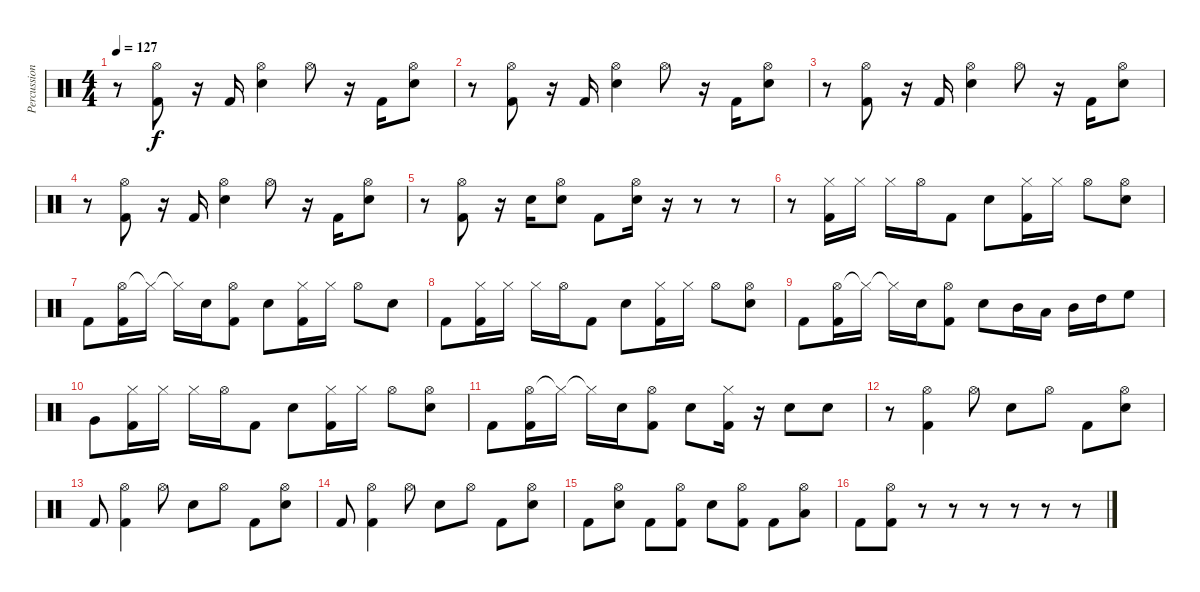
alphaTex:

\track ("Percussion" "Percussion") {instrument percussion}
\staff {score}
\articulation defaults
\ts (4 4)
\tempo 127
\clef neutral
\ks c
r.8{dy f} ("Hi-Hat (open)" "Kick (hit) 2").8 r.16 "Kick (hit) 2".16 ("Hi-Hat (open)" "Electric Snare (hit)").4 "Hi-Hat (open)".8 r.16 "Kick (hit) 2".16 ("Hi-Hat (open)" "Electric Snare (hit)").8 |
r.8 ("Hi-Hat (open)" "Kick (hit) 2").8 r.16 "Kick (hit) 2".16 ("Hi-Hat (open)" "Electric Snare (hit)").4 "Hi-Hat (open)".8 r.16 "Kick (hit) 2".16 ("Hi-Hat (open)" "Electric Snare (hit)").8 |
r.8 ("Hi-Hat (open)" "Kick (hit) 2").8 r.16 "Kick (hit) 2".16 ("Hi-Hat (open)" "Electric Snare (hit)").4 "Hi-Hat (open)".8 r.16 "Kick (hit) 2".16 ("Hi-Hat (open)" "Electric Snare (hit)").8 |
r.8 ("Hi-Hat (open)" "Kick (hit) 2").8 r.16 "Kick (hit) 2".16 ("Hi-Hat (open)" "Electric Snare (hit)").4 "Hi-Hat (open)".8 r.16 "Kick (hit) 2".16 ("Hi-Hat (open)" "Electric Snare (hit)").8 |
r.8 ("Hi-Hat (open)" "Kick (hit) 2").8 r.16 "Electric Snare (hit)".16 ("Hi-Hat (open)" "Electric Snare (hit)").8 "Kick (hit) 2".8 ("Hi-Hat (open)" "Electric Snare (hit)").16 r.16 r.8 r.8 |
r.8 ("Hi-Hat (closed)" "Kick (hit) 2").16 "Hi-Hat (closed)".16 "Hi-Hat (closed)".16 "Hi-Hat (open)".16 "Kick (hit) 2".8 "Electric Snare (hit)".8 ("Hi-Hat (closed)" "Kick (hit) 2").16 "Hi-Hat (closed)".16 "Hi-Hat (open)".8 ("Hi-Hat (open)" "Electric Snare (hit)").8 |
"Kick (hit) 2".8 ("Hi-Hat (open)" "Kick (hit) 2").16 "Hi-Hat (closed)"{t}.16 "Hi-Hat (closed)"{t}.16 "Electric Snare (hit)".16 ("Hi-Hat (open)" "Kick (hit) 2").8 "Electric Snare (hit)".8 ("Hi-Hat (closed)" "Kick (hit) 2").16 "Hi-Hat (closed)".16 "Hi-Hat (open)".8 "Electric Snare (hit)".8 |
"Kick (hit) 2".8 ("Hi-Hat (closed)" "Kick (hit) 2").16 "Hi-Hat (closed)".16 "Hi-Hat (closed)".16 "Hi-Hat (open)".16 "Kick (hit) 2".8 "Electric Snare (hit)".8 ("Hi-Hat (closed)" "Kick (hit) 2").16 "Hi-Hat (closed)".16 "Hi-Hat (open)".8 ("Hi-Hat (open)" "Electric Snare (hit)").8 |
"Kick (hit) 2".8 ("Hi-Hat (open)" "Kick (hit) 2").16 "Hi-Hat (closed)"{t}.16 "Hi-Hat (closed)"{t}.16 "Electric Snare (hit)".16 ("Hi-Hat (open)" "Kick (hit) 2").8 "Electric Snare (hit)".8 "Mid Tom (hit)".16 "Low Tom (hit)".16 "Mid Tom (hit)".16 "High Tom (hit)".16 "High Floor Tom (hit)".8 |
"Very Low Tom (hit)".8 ("Hi-Hat (closed)" "Kick (hit) 2").16 "Hi-Hat (closed)".16 "Hi-Hat (closed)".16 "Hi-Hat (open)".16 "Kick (hit) 2".8 "Electric Snare (hit)".8 ("Hi-Hat (closed)" "Kick (hit) 2").16 "Hi-Hat (closed)".16 "Hi-Hat (open)".8 ("Hi-Hat (open)" "Electric Snare (hit)").8 |
"Kick (hit) 2".8 ("Hi-Hat (open)" "Kick (hit) 2").16 "Hi-Hat (closed)"{t}.16 "Hi-Hat (closed)"{t}.16 "Electric Snare (hit)".16 ("Hi-Hat (open)" "Kick (hit) 2").8 "Electric Snare (hit)".8 ("Hi-Hat (closed)" "Kick (hit) 2").16 r.16 "Electric Snare (hit)".8 "Electric Snare (hit)".8 |
r.8 ("Hi-Hat (open)" "Kick (hit) 2").4 "Hi-Hat (open)".8 "Electric Snare (hit)".8 "Hi-Hat (open)".8 "Kick (hit) 2".8 ("Hi-Hat (open)" "Electric Snare (hit)").8 |
"Kick (hit) 2".8 ("Hi-Hat (open)" "Kick (hit) 2").4 "Hi-Hat (open)".8 "Electric Snare (hit)".8 "Hi-Hat (open)".8 "Kick (hit) 2".8 ("Hi-Hat (open)" "Electric Snare (hit)").8 |
"Kick (hit) 2".8 ("Hi-Hat (open)" "Kick (hit) 2").4 "Hi-Hat (open)".8 "Electric Snare (hit)".8 "Hi-Hat (open)".8 "Kick (hit) 2".8 ("Hi-Hat (open)" "Electric Snare (hit)").8 |
"Kick (hit) 2".8 ("Hi-Hat (open)" "Electric Snare (hit)").8 "Kick (hit) 2".8 ("Hi-Hat (open)" "Kick (hit) 2").8 "Electric Snare (hit)".8 ("Hi-Hat (open)" "Kick (hit) 2").8 "Kick (hit) 2".8 ("Hi-Hat (open)" "Low Tom (hit)").8 |
"Kick (hit) 2".8 ("Hi-Hat (open)" "Kick (hit) 2").8 r.8 r.8 r.8 r.8 r.8 r.8
